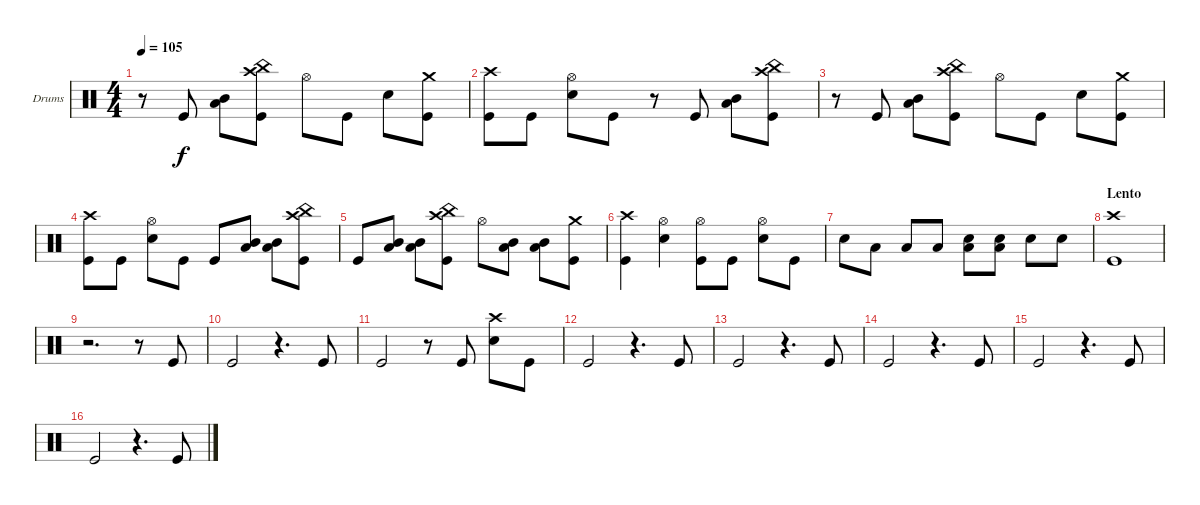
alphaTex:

\bracketExtendMode groupsimilarinstruments
\firstSystemTrackNameOrientation horizontal
\otherSystemsTrackNameOrientation horizontal
\track ("Drumkit" "Drums") {instrument percussion}
\staff {score}
\articulation defaults
\ts (4 4)
\tempo 105
\clef neutral
\ks c
r.8{dy f} "Kick (hit)".8 ("Mid Tom (hit)" "Low Tom (hit)").8 ("Crash high (hit)" "China (hit)" "Kick (hit)").8 "Hi-Hat (open)".8 "Kick (hit)".8 "Snare (hit) 2".8 ("Crash medium (hit)" "Kick (hit)").8 |
("Crash high (hit)" "Kick (hit)").8 "Kick (hit)".8 ("Hi-Hat (open)" "Snare (hit) 2").8 "Kick (hit)".8 r.8 "Kick (hit)".8 ("Mid Tom (hit)" "Low Tom (hit)").8 ("Crash high (hit)" "China (hit)" "Kick (hit)").8 |
r.8 "Kick (hit)".8 ("Mid Tom (hit)" "Low Tom (hit)").8 ("Crash high (hit)" "China (hit)" "Kick (hit)").8 "Hi-Hat (open)".8 "Kick (hit)".8 "Snare (hit) 2".8 ("Crash medium (hit)" "Kick (hit)").8 |
("Crash high (hit)" "Kick (hit)").8 "Kick (hit)".8 ("Hi-Hat (open)" "Snare (hit) 2").8 "Kick (hit)".8 "Kick (hit)".8 ("Mid Tom (hit)" "Low Tom (hit)").8 ("Mid Tom (hit)" "Low Tom (hit)").8 ("Crash high (hit)" "China (hit)" "Kick (hit)").8 |
"Kick (hit)".8 ("Mid Tom (hit)" "Low Tom (hit)").8 ("Mid Tom (hit)" "Low Tom (hit)").8 ("Crash high (hit)" "China (hit)" "Kick (hit)").8 "Hi-Hat (open)".8 ("Mid Tom (hit)" "Low Tom (hit)").8 ("Mid Tom (hit)" "Low Tom (hit)").8 ("Crash medium (hit)" "Kick (hit)").8 |
("Crash high (hit)" "Kick (hit)").4 ("Hi-Hat (open)" "Snare (hit) 2").4 ("Hi-Hat (open)" "Kick (hit)").8 "Kick (hit)".8 ("Hi-Hat (open)" "Snare (hit) 2").8 "Kick (hit)".8 |
"Snare (hit) 2".8 "Low Tom (hit)".8 "Low Tom (hit)".8 "Low Tom (hit)".8 ("Low Tom (hit)" "Snare (hit) 2").8 ("Low Tom (hit)" "Snare (hit) 2").8 "Snare (hit) 2".8 "Snare (hit) 2".8 |
\section ("" "Lento")
("Crash high (hit)" "Kick (hit)").1 |
r.2{d} r.8 "Kick (hit)".8 |
"Kick (hit)".2 r.4{d} "Kick (hit)".8 |
"Kick (hit)".2 r.8 "Kick (hit)".8 ("Crash high (hit)" "Snare (hit) 2").8 "Kick (hit)".8 |
"Kick (hit)".2 r.4{d} "Kick (hit)".8 |
"Kick (hit)".2 r.4{d} "Kick (hit)".8 |
"Kick (hit)".2 r.4{d} "Kick (hit)".8 |
"Kick (hit)".2 r.4{d} "Kick (hit)".8 |
"Kick (hit)".2 r.4{d} "Kick (hit)".8
